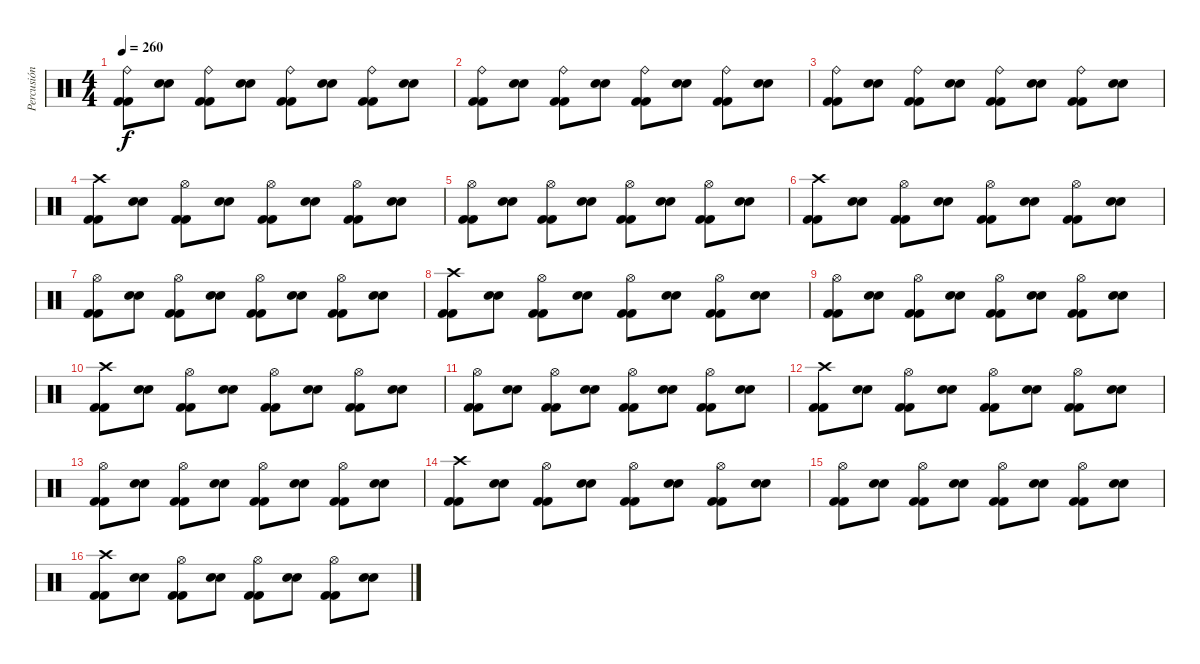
\track ("Percusión" "Percusión") {instrument percussion}
\staff {score}
\articulation defaults
\ts (4 4)
\tempo 260
\clef neutral
\ks c
("Kick (hit) 2" "Kick (hit) 2" "Ride (bell)").8{dy f} ("Electric Snare (hit)" "Electric Snare (hit)").8 ("Kick (hit) 2" "Kick (hit) 2" "Ride (bell)").8 ("Electric Snare (hit)" "Electric Snare (hit)").8 ("Kick (hit) 2" "Kick (hit) 2" "Ride (bell)").8 ("Electric Snare (hit)" "Electric Snare (hit)").8 ("Kick (hit) 2" "Kick (hit) 2" "Ride (bell)").8 ("Electric Snare (hit)" "Electric Snare (hit)").8 |
("Kick (hit) 2" "Kick (hit) 2" "Ride (bell)").8 ("Electric Snare (hit)" "Electric Snare (hit)").8 ("Kick (hit) 2" "Kick (hit) 2" "Ride (bell)").8 ("Electric Snare (hit)" "Electric Snare (hit)").8 ("Kick (hit) 2" "Kick (hit) 2" "Ride (bell)").8 ("Electric Snare (hit)" "Electric Snare (hit)").8 ("Kick (hit) 2" "Kick (hit) 2" "Ride (bell)").8 ("Electric Snare (hit)" "Electric Snare (hit)").8 |
("Kick (hit) 2" "Kick (hit) 2" "Ride (bell)").8 ("Electric Snare (hit)" "Electric Snare (hit)").8 ("Kick (hit) 2" "Kick (hit) 2" "Ride (bell)").8 ("Electric Snare (hit)" "Electric Snare (hit)").8 ("Kick (hit) 2" "Kick (hit) 2" "Ride (bell)").8 ("Electric Snare (hit)" "Electric Snare (hit)").8 ("Kick (hit) 2" "Kick (hit) 2" "Ride (bell)").8 ("Electric Snare (hit)" "Electric Snare (hit)").8 |
("Kick (hit) 2" "Kick (hit) 2" "Crash high (hit)").8 ("Electric Snare (hit)" "Electric Snare (hit)").8 ("Kick (hit) 2" "Kick (hit) 2" "Hi-Hat (open)").8 ("Electric Snare (hit)" "Electric Snare (hit)").8 ("Kick (hit) 2" "Kick (hit) 2" "Hi-Hat (open)").8 ("Electric Snare (hit)" "Electric Snare (hit)").8 ("Kick (hit) 2" "Kick (hit) 2" "Hi-Hat (open)").8 ("Electric Snare (hit)" "Electric Snare (hit)").8 |
("Kick (hit) 2" "Kick (hit) 2" "Hi-Hat (open)").8 ("Electric Snare (hit)" "Electric Snare (hit)").8 ("Kick (hit) 2" "Kick (hit) 2" "Hi-Hat (open)").8 ("Electric Snare (hit)" "Electric Snare (hit)").8 ("Kick (hit) 2" "Kick (hit) 2" "Hi-Hat (open)").8 ("Electric Snare (hit)" "Electric Snare (hit)").8 ("Kick (hit) 2" "Kick (hit) 2" "Hi-Hat (open)").8 ("Electric Snare (hit)" "Electric Snare (hit)").8 |
("Kick (hit) 2" "Kick (hit) 2" "Crash high (hit)").8 ("Electric Snare (hit)" "Electric Snare (hit)").8 ("Kick (hit) 2" "Kick (hit) 2" "Hi-Hat (open)").8 ("Electric Snare (hit)" "Electric Snare (hit)").8 ("Kick (hit) 2" "Kick (hit) 2" "Hi-Hat (open)").8 ("Electric Snare (hit)" "Electric Snare (hit)").8 ("Kick (hit) 2" "Kick (hit) 2" "Hi-Hat (open)").8 ("Electric Snare (hit)" "Electric Snare (hit)").8 |
("Kick (hit) 2" "Kick (hit) 2" "Hi-Hat (open)").8 ("Electric Snare (hit)" "Electric Snare (hit)").8 ("Kick (hit) 2" "Kick (hit) 2" "Hi-Hat (open)").8 ("Electric Snare (hit)" "Electric Snare (hit)").8 ("Kick (hit) 2" "Kick (hit) 2" "Hi-Hat (open)").8 ("Electric Snare (hit)" "Electric Snare (hit)").8 ("Kick (hit) 2" "Kick (hit) 2" "Hi-Hat (open)").8 ("Electric Snare (hit)" "Electric Snare (hit)").8 |
("Kick (hit) 2" "Kick (hit) 2" "Crash high (hit)").8 ("Electric Snare (hit)" "Electric Snare (hit)").8 ("Kick (hit) 2" "Kick (hit) 2" "Hi-Hat (open)").8 ("Electric Snare (hit)" "Electric Snare (hit)").8 ("Kick (hit) 2" "Kick (hit) 2" "Hi-Hat (open)").8 ("Electric Snare (hit)" "Electric Snare (hit)").8 ("Kick (hit) 2" "Kick (hit) 2" "Hi-Hat (open)").8 ("Electric Snare (hit)" "Electric Snare (hit)").8 |
("Kick (hit) 2" "Kick (hit) 2" "Hi-Hat (open)").8 ("Electric Snare (hit)" "Electric Snare (hit)").8 ("Kick (hit) 2" "Kick (hit) 2" "Hi-Hat (open)").8 ("Electric Snare (hit)" "Electric Snare (hit)").8 ("Kick (hit) 2" "Kick (hit) 2" "Hi-Hat (open)").8 ("Electric Snare (hit)" "Electric Snare (hit)").8 ("Kick (hit) 2" "Kick (hit) 2" "Hi-Hat (open)").8 ("Electric Snare (hit)" "Electric Snare (hit)").8 |
("Kick (hit) 2" "Kick (hit) 2" "Crash high (hit)").8 ("Electric Snare (hit)" "Electric Snare (hit)").8 ("Kick (hit) 2" "Kick (hit) 2" "Hi-Hat (open)").8 ("Electric Snare (hit)" "Electric Snare (hit)").8 ("Kick (hit) 2" "Kick (hit) 2" "Hi-Hat (open)").8 ("Electric Snare (hit)" "Electric Snare (hit)").8 ("Kick (hit) 2" "Kick (hit) 2" "Hi-Hat (open)").8 ("Electric Snare (hit)" "Electric Snare (hit)").8 |
("Kick (hit) 2" "Kick (hit) 2" "Hi-Hat (open)").8 ("Electric Snare (hit)" "Electric Snare (hit)").8 ("Kick (hit) 2" "Kick (hit) 2" "Hi-Hat (open)").8 ("Electric Snare (hit)" "Electric Snare (hit)").8 ("Kick (hit) 2" "Kick (hit) 2" "Hi-Hat (open)").8 ("Electric Snare (hit)" "Electric Snare (hit)").8 ("Kick (hit) 2" "Kick (hit) 2" "Hi-Hat (open)").8 ("Electric Snare (hit)" "Electric Snare (hit)").8 |
("Kick (hit) 2" "Kick (hit) 2" "Crash high (hit)").8 ("Electric Snare (hit)" "Electric Snare (hit)").8 ("Kick (hit) 2" "Kick (hit) 2" "Hi-Hat (open)").8 ("Electric Snare (hit)" "Electric Snare (hit)").8 ("Kick (hit) 2" "Kick (hit) 2" "Hi-Hat (open)").8 ("Electric Snare (hit)" "Electric Snare (hit)").8 ("Kick (hit) 2" "Kick (hit) 2" "Hi-Hat (open)").8 ("Electric Snare (hit)" "Electric Snare (hit)").8 |
("Kick (hit) 2" "Kick (hit) 2" "Hi-Hat (open)").8 ("Electric Snare (hit)" "Electric Snare (hit)").8 ("Kick (hit) 2" "Kick (hit) 2" "Hi-Hat (open)").8 ("Electric Snare (hit)" "Electric Snare (hit)").8 ("Kick (hit) 2" "Kick (hit) 2" "Hi-Hat (open)").8 ("Electric Snare (hit)" "Electric Snare (hit)").8 ("Kick (hit) 2" "Kick (hit) 2" "Hi-Hat (open)").8 ("Electric Snare (hit)" "Electric Snare (hit)").8 |
("Kick (hit) 2" "Kick (hit) 2" "Crash high (hit)").8 ("Electric Snare (hit)" "Electric Snare (hit)").8 ("Kick (hit) 2" "Kick (hit) 2" "Hi-Hat (open)").8 ("Electric Snare (hit)" "Electric Snare (hit)").8 ("Kick (hit) 2" "Kick (hit) 2" "Hi-Hat (open)").8 ("Electric Snare (hit)" "Electric Snare (hit)").8 ("Kick (hit) 2" "Kick (hit) 2" "Hi-Hat (open)").8 ("Electric Snare (hit)" "Electric Snare (hit)").8 |
("Kick (hit) 2" "Kick (hit) 2" "Hi-Hat (open)").8 ("Electric Snare (hit)" "Electric Snare (hit)").8 ("Kick (hit) 2" "Kick (hit) 2" "Hi-Hat (open)").8 ("Electric Snare (hit)" "Electric Snare (hit)").8 ("Kick (hit) 2" "Kick (hit) 2" "Hi-Hat (open)").8 ("Electric Snare (hit)" "Electric Snare (hit)").8 ("Kick (hit) 2" "Kick (hit) 2" "Hi-Hat (open)").8 ("Electric Snare (hit)" "Electric Snare (hit)").8 |
("Kick (hit) 2" "Kick (hit) 2" "Crash high (hit)").8 ("Electric Snare (hit)" "Electric Snare (hit)").8 ("Kick (hit) 2" "Kick (hit) 2" "Hi-Hat (open)").8 ("Electric Snare (hit)" "Electric Snare (hit)").8 ("Kick (hit) 2" "Kick (hit) 2" "Hi-Hat (open)").8 ("Electric Snare (hit)" "Electric Snare (hit)").8 ("Kick (hit) 2" "Kick (hit) 2" "Hi-Hat (open)").8 ("Electric Snare (hit)" "Electric Snare (hit)").8
